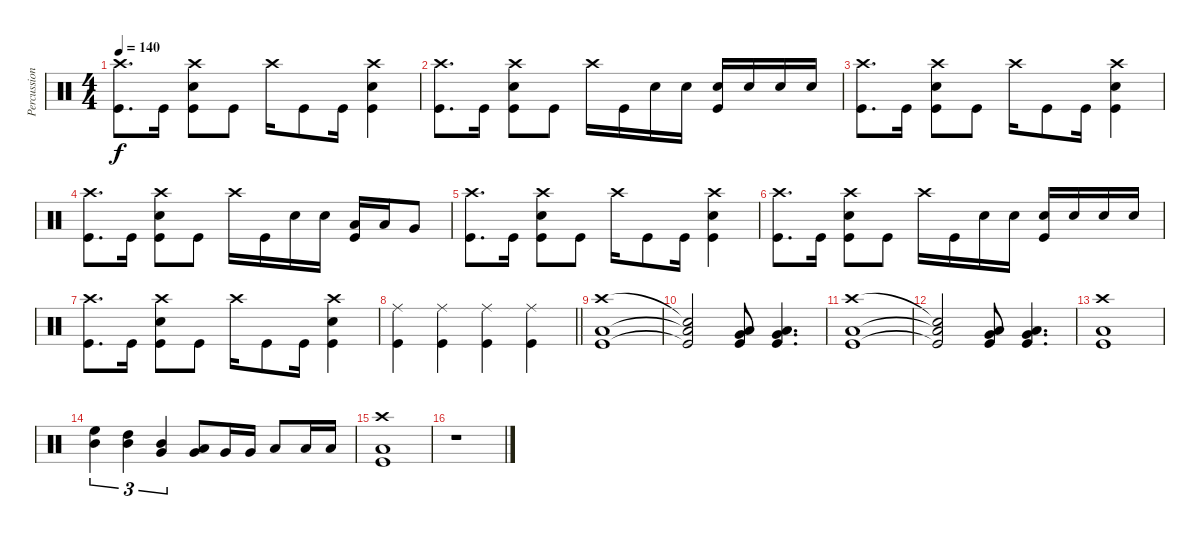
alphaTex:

\track ("Percussion" "Percussion") {instrument percussion}
\staff {score}
\articulation defaults
\ts (4 4)
\tempo 140
\clef neutral
\ks c
("Crash high (hit)" "Kick (hit)").8{d dy f} "Kick (hit)".16 ("Crash high (hit)" "Snare (hit) 2" "Kick (hit)").8 "Kick (hit)".8 "Crash high (hit)".16 "Kick (hit)".8 "Kick (hit)".16 ("Crash high (hit)" "Snare (hit) 2" "Kick (hit)").4 |
("Crash high (hit)" "Kick (hit)").8{d} "Kick (hit)".16 ("Crash high (hit)" "Snare (hit) 2" "Kick (hit)").8 "Kick (hit)".8 "Crash high (hit)".16 "Kick (hit)".16 "Snare (hit) 2".16 "Snare (hit) 2".16 ("Snare (hit) 2" "Kick (hit)").16 "Snare (hit) 2".16 "Snare (hit) 2".16 "Snare (hit) 2".16 |
("Crash high (hit)" "Kick (hit)").8{d} "Kick (hit)".16 ("Crash high (hit)" "Snare (hit) 2" "Kick (hit)").8 "Kick (hit)".8 "Crash high (hit)".16 "Kick (hit)".8 "Kick (hit)".16 ("Crash high (hit)" "Snare (hit) 2" "Kick (hit)").4 |
("Crash high (hit)" "Kick (hit)").8{d} "Kick (hit)".16 ("Crash high (hit)" "Snare (hit) 2" "Kick (hit)").8 "Kick (hit)".8 "Crash high (hit)".16 "Kick (hit)".16 "Snare (hit) 2".16 "Snare (hit) 2".16 ("Low Tom (hit)" "Kick (hit)").16 "Low Tom (hit)".16 "Very Low Tom (hit)".8 |
("Crash high (hit)" "Kick (hit)").8{d} "Kick (hit)".16 ("Crash high (hit)" "Snare (hit) 2" "Kick (hit)").8 "Kick (hit)".8 "Crash high (hit)".16 "Kick (hit)".8 "Kick (hit)".16 ("Crash high (hit)" "Snare (hit) 2" "Kick (hit)").4 |
("Crash high (hit)" "Kick (hit)").8{d} "Kick (hit)".16 ("Crash high (hit)" "Snare (hit) 2" "Kick (hit)").8 "Kick (hit)".8 "Crash high (hit)".16 "Kick (hit)".16 "Snare (hit) 2".16 "Snare (hit) 2".16 ("Snare (hit) 2" "Kick (hit)").16 "Snare (hit) 2".16 "Snare (hit) 2".16 "Snare (hit) 2".16 |
("Crash high (hit)" "Kick (hit)").8{d} "Kick (hit)".16 ("Crash high (hit)" "Snare (hit) 2" "Kick (hit)").8 "Kick (hit)".8 "Crash high (hit)".16 "Kick (hit)".8 "Kick (hit)".16 ("Crash high (hit)" "Snare (hit) 2" "Kick (hit)").4 |
\barLineRight lightlight
("Ride (middle)" "Kick (hit)").4 ("Ride (middle)" "Kick (hit)").4 ("Ride (middle)" "Kick (hit)").4 ("Ride (middle)" "Kick (hit)").4 |
("Crash high (hit)" "Low Floor Tom (hit)" "Kick (hit)").1 |
("Snare (hit)"{t} "Low Floor Tom (hit)"{t} "Kick (hit)"{t}).2 ("Low Floor Tom (hit)" "Very Low Tom (hit)" "Kick (hit)").8 ("Low Floor Tom (hit)" "Very Low Tom (hit)" "Kick (hit)").4{d} |
("Crash high (hit)" "Low Floor Tom (hit)" "Kick (hit)").1 |
("Snare (hit)"{t} "Low Floor Tom (hit)"{t} "Kick (hit)"{t}).2 ("Low Floor Tom (hit)" "Very Low Tom (hit)" "Kick (hit)").8 ("Low Floor Tom (hit)" "Very Low Tom (hit)" "Kick (hit)").4{d} |
("Crash high (hit)" "Low Floor Tom (hit)" "Kick (hit)").1 |
("High Floor Tom (hit)" "Mid Tom (hit)").4{tu (3 2)} ("High Tom (hit)" "Mid Tom (hit)").4{tu (3 2)} ("Mid Tom (hit)" "Very Low Tom (hit)").4{tu (3 2)} ("Low Tom (hit)" "Very Low Tom (hit)").8 "Very Low Tom (hit)".16 "Very Low Tom (hit)".16 "Low Floor Tom (hit)".8 "Low Floor Tom (hit)".16 "Low Floor Tom (hit)".16 |
("Crash high (hit)" "Low Floor Tom (hit)" "Kick (hit)").1 |
r.1
